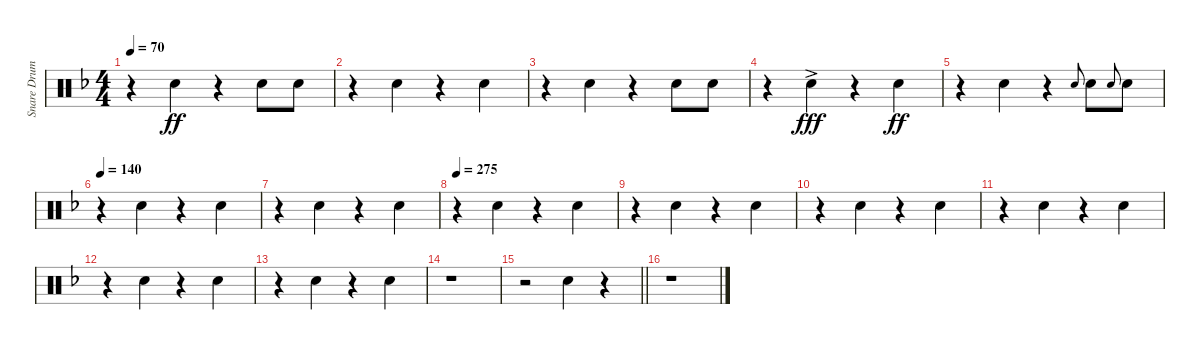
\track ("Snare Drum" "Snare Drum") {instrument percussion}
\staff {score}
\articulation defaults
\ts (4 4)
\tempo 70
\clef neutral
\ks dminor
r.4{dy ff} "Electric Snare (hit)".4 r.4{beam merge} "Electric Snare (hit)".8 "Electric Snare (hit)".8 |
r.4 "Electric Snare (hit)".4 r.4 "Electric Snare (hit)".4 |
r.4 "Electric Snare (hit)".4 r.4{beam merge} "Electric Snare (hit)".8 "Electric Snare (hit)".8 |
r.4 "Electric Snare (hit)"{ac}.4{dy fff} r.4 "Electric Snare (hit)".4{dy ff} |
r.4 "Electric Snare (hit)".4 r.4 "Electric Snare (hit)".8{gr onbeat beam merge} "Electric Snare (hit)".8 "Electric Snare (hit)".8{gr onbeat} "Electric Snare (hit)".8 |
\tempo 140
r.4 "Electric Snare (hit)".4 r.4 "Electric Snare (hit)".4 |
r.4 "Electric Snare (hit)".4 r.4 "Electric Snare (hit)".4 |
\tempo 275
r.4 "Electric Snare (hit)".4 r.4 "Electric Snare (hit)".4 |
r.4 "Electric Snare (hit)".4 r.4 "Electric Snare (hit)".4 |
r.4 "Electric Snare (hit)".4 r.4 "Electric Snare (hit)".4 |
r.4 "Electric Snare (hit)".4 r.4 "Electric Snare (hit)".4 |
r.4 "Electric Snare (hit)".4 r.4 "Electric Snare (hit)".4 |
r.4 "Electric Snare (hit)".4 r.4 "Electric Snare (hit)".4 |
r.1 |
\barLineRight lightlight
r.2 "Electric Snare (hit)".4 r.4 |
r.1
